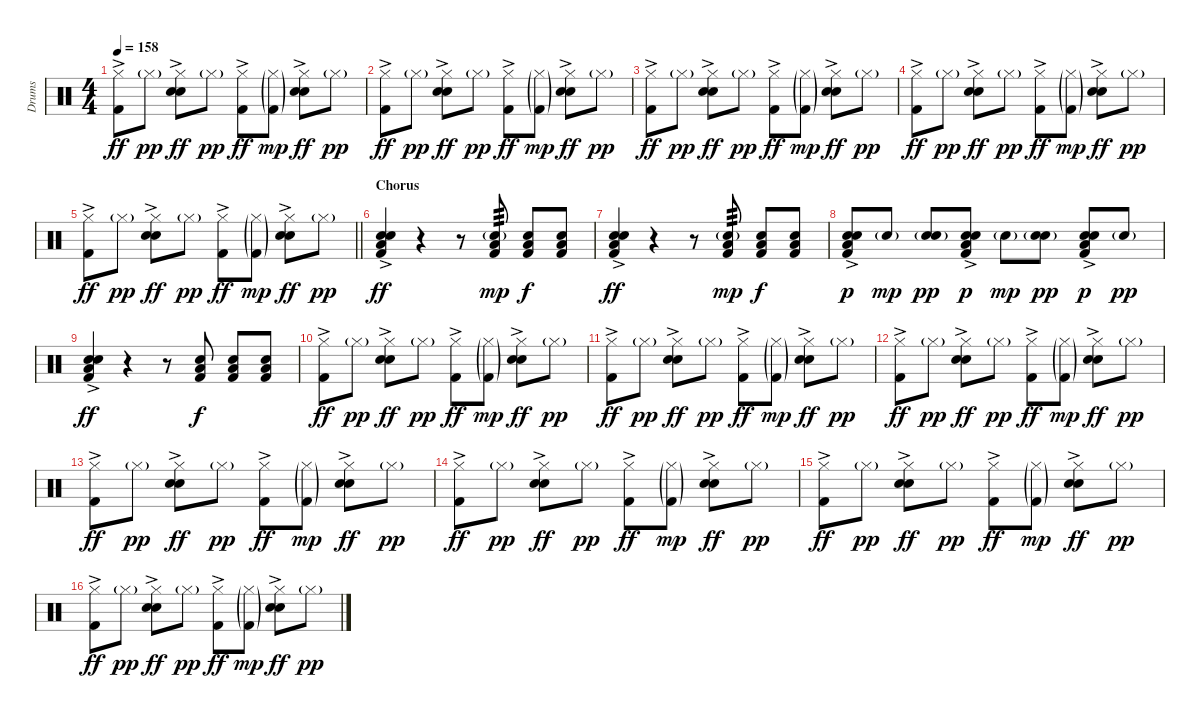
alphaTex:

\track ("Drums" "Drums") {instrument percussion}
\staff {score}
\articulation defaults
\ts (4 4)
\tempo 158
\clef neutral
\ks c
("Hi-Hat (closed)" "Kick (hit) 2"{ac}).8{dy ff} "Hi-Hat (closed)"{g}.8{dy pp} ("Hi-Hat (closed)" "Electric Snare (hit)"{ac} "Snare (hit) 2").8{dy ff} "Hi-Hat (closed)"{g}.8{dy pp} ("Hi-Hat (closed)" "Kick (hit) 2"{ac}).8{dy ff} ("Hi-Hat (closed)"{g} "Kick (hit) 2"{g}).8{dy mp} ("Hi-Hat (closed)" "Electric Snare (hit)"{ac} "Snare (hit) 2").8{dy ff} "Hi-Hat (closed)"{g}.8{dy pp} |
("Hi-Hat (closed)" "Kick (hit) 2"{ac}).8{dy ff} "Hi-Hat (closed)"{g}.8{dy pp} ("Hi-Hat (closed)" "Electric Snare (hit)"{ac} "Snare (hit) 2").8{dy ff} "Hi-Hat (closed)"{g}.8{dy pp} ("Hi-Hat (closed)" "Kick (hit) 2"{ac}).8{dy ff} ("Hi-Hat (closed)"{g} "Kick (hit) 2"{g}).8{dy mp} ("Hi-Hat (closed)" "Electric Snare (hit)"{ac} "Snare (hit) 2").8{dy ff} "Hi-Hat (closed)"{g}.8{dy pp} |
("Hi-Hat (closed)" "Kick (hit) 2"{ac}).8{dy ff} "Hi-Hat (closed)"{g}.8{dy pp} ("Hi-Hat (closed)" "Electric Snare (hit)"{ac} "Snare (hit) 2").8{dy ff} "Hi-Hat (closed)"{g}.8{dy pp} ("Hi-Hat (closed)" "Kick (hit) 2"{ac}).8{dy ff} ("Hi-Hat (closed)"{g} "Kick (hit) 2"{g}).8{dy mp} ("Hi-Hat (closed)" "Electric Snare (hit)"{ac} "Snare (hit) 2").8{dy ff} "Hi-Hat (closed)"{g}.8{dy pp} |
("Hi-Hat (closed)" "Kick (hit) 2"{ac}).8{dy ff} "Hi-Hat (closed)"{g}.8{dy pp} ("Hi-Hat (closed)" "Electric Snare (hit)"{ac} "Snare (hit) 2").8{dy ff} "Hi-Hat (closed)"{g}.8{dy pp} ("Hi-Hat (closed)" "Kick (hit) 2"{ac}).8{dy ff} ("Hi-Hat (closed)"{g} "Kick (hit) 2"{g}).8{dy mp} ("Hi-Hat (closed)" "Electric Snare (hit)"{ac} "Snare (hit) 2").8{dy ff} "Hi-Hat (closed)"{g}.8{dy pp} |
\barLineRight lightlight
("Hi-Hat (closed)" "Kick (hit) 2"{ac}).8{dy ff} "Hi-Hat (closed)"{g}.8{dy pp} ("Hi-Hat (closed)" "Electric Snare (hit)"{ac} "Snare (hit) 2").8{dy ff} "Hi-Hat (closed)"{g}.8{dy pp} ("Hi-Hat (closed)" "Kick (hit) 2"{ac}).8{dy ff} ("Hi-Hat (closed)"{g} "Kick (hit) 2"{g}).8{dy mp} ("Hi-Hat (closed)" "Electric Snare (hit)"{ac} "Snare (hit) 2").8{dy ff} "Hi-Hat (closed)"{g}.8{dy pp} |
\section ("" "Chorus")
("Low Floor Tom (hit)" "Electric Snare (hit)"{ac} "Snare (hit) 2" "Kick (hit) 2").4{dy ff} r.4 r.8 ("Low Floor Tom (hit)" "Snare (hit) 2"{g} "Kick (hit) 2").8{tp 3 dy mp} ("Low Floor Tom (hit)" "Snare (hit) 2" "Kick (hit) 2").8{dy f} ("Low Floor Tom (hit)" "Snare (hit) 2" "Kick (hit) 2").8 |
("Low Floor Tom (hit)" "Electric Snare (hit)"{ac} "Snare (hit) 2" "Kick (hit) 2").4{dy ff} r.4 r.8 ("Low Floor Tom (hit)" "Snare (hit) 2"{g} "Kick (hit) 2").8{tp 3 dy mp} ("Low Floor Tom (hit)" "Snare (hit) 2" "Kick (hit) 2").8{dy f} ("Low Floor Tom (hit)" "Snare (hit) 2" "Kick (hit) 2").8 |
("Low Floor Tom (hit)" "Electric Snare (hit)" "Snare (hit) 2" "Kick (hit) 2"{ac}).8{dy p} "Snare (hit) 2"{g}.8{dy mp} ("Electric Snare (hit)" "Snare (hit) 2"{g}).8{dy pp} ("Low Floor Tom (hit)" "Electric Snare (hit)" "Snare (hit) 2" "Kick (hit) 2"{ac}).8{dy p} "Snare (hit) 2"{g}.8{dy mp} ("Electric Snare (hit)" "Snare (hit) 2"{g}).8{dy pp} ("Low Floor Tom (hit)" "Electric Snare (hit)" "Snare (hit) 2" "Kick (hit) 2"{ac}).8{dy p} "Snare (hit) 2"{g}.8{dy pp} |
("Low Floor Tom (hit)" "Electric Snare (hit)"{ac} "Snare (hit) 2" "Kick (hit) 2").4{dy ff} r.4 r.8 ("Low Floor Tom (hit)" "Snare (hit) 2" "Kick (hit) 2").8{dy f} ("Low Floor Tom (hit)" "Snare (hit) 2" "Kick (hit) 2").8 ("Low Floor Tom (hit)" "Snare (hit) 2" "Kick (hit) 2").8 |
("Hi-Hat (closed)" "Kick (hit) 2"{ac}).8{dy ff} "Hi-Hat (closed)"{g}.8{dy pp} ("Hi-Hat (closed)" "Electric Snare (hit)"{ac} "Snare (hit) 2").8{dy ff} "Hi-Hat (closed)"{g}.8{dy pp} ("Hi-Hat (closed)" "Kick (hit) 2"{ac}).8{dy ff} ("Hi-Hat (closed)"{g} "Kick (hit) 2"{g}).8{dy mp} ("Hi-Hat (closed)" "Electric Snare (hit)"{ac} "Snare (hit) 2").8{dy ff} "Hi-Hat (closed)"{g}.8{dy pp} |
("Hi-Hat (closed)" "Kick (hit) 2"{ac}).8{dy ff} "Hi-Hat (closed)"{g}.8{dy pp} ("Hi-Hat (closed)" "Electric Snare (hit)"{ac} "Snare (hit) 2").8{dy ff} "Hi-Hat (closed)"{g}.8{dy pp} ("Hi-Hat (closed)" "Kick (hit) 2"{ac}).8{dy ff} ("Hi-Hat (closed)"{g} "Kick (hit) 2"{g}).8{dy mp} ("Hi-Hat (closed)" "Electric Snare (hit)"{ac} "Snare (hit) 2").8{dy ff} "Hi-Hat (closed)"{g}.8{dy pp} |
("Hi-Hat (closed)" "Kick (hit) 2"{ac}).8{dy ff} "Hi-Hat (closed)"{g}.8{dy pp} ("Hi-Hat (closed)" "Electric Snare (hit)"{ac} "Snare (hit) 2").8{dy ff} "Hi-Hat (closed)"{g}.8{dy pp} ("Hi-Hat (closed)" "Kick (hit) 2"{ac}).8{dy ff} ("Hi-Hat (closed)"{g} "Kick (hit) 2"{g}).8{dy mp} ("Hi-Hat (closed)" "Electric Snare (hit)"{ac} "Snare (hit) 2").8{dy ff} "Hi-Hat (closed)"{g}.8{dy pp} |
("Hi-Hat (closed)" "Kick (hit) 2"{ac}).8{dy ff} "Hi-Hat (closed)"{g}.8{dy pp} ("Hi-Hat (closed)" "Electric Snare (hit)"{ac} "Snare (hit) 2").8{dy ff} "Hi-Hat (closed)"{g}.8{dy pp} ("Hi-Hat (closed)" "Kick (hit) 2"{ac}).8{dy ff} ("Hi-Hat (closed)"{g} "Kick (hit) 2"{g}).8{dy mp} ("Hi-Hat (closed)" "Electric Snare (hit)"{ac} "Snare (hit) 2").8{dy ff} "Hi-Hat (closed)"{g}.8{dy pp} |
("Hi-Hat (closed)" "Kick (hit) 2"{ac}).8{dy ff} "Hi-Hat (closed)"{g}.8{dy pp} ("Hi-Hat (closed)" "Electric Snare (hit)"{ac} "Snare (hit) 2").8{dy ff} "Hi-Hat (closed)"{g}.8{dy pp} ("Hi-Hat (closed)" "Kick (hit) 2"{ac}).8{dy ff} ("Hi-Hat (closed)"{g} "Kick (hit) 2"{g}).8{dy mp} ("Hi-Hat (closed)" "Electric Snare (hit)"{ac} "Snare (hit) 2").8{dy ff} "Hi-Hat (closed)"{g}.8{dy pp} |
("Hi-Hat (closed)" "Kick (hit) 2"{ac}).8{dy ff} "Hi-Hat (closed)"{g}.8{dy pp} ("Hi-Hat (closed)" "Electric Snare (hit)"{ac} "Snare (hit) 2").8{dy ff} "Hi-Hat (closed)"{g}.8{dy pp} ("Hi-Hat (closed)" "Kick (hit) 2"{ac}).8{dy ff} ("Hi-Hat (closed)"{g} "Kick (hit) 2"{g}).8{dy mp} ("Hi-Hat (closed)" "Electric Snare (hit)"{ac} "Snare (hit) 2").8{dy ff} "Hi-Hat (closed)"{g}.8{dy pp} |
("Hi-Hat (closed)" "Kick (hit) 2"{ac}).8{dy ff} "Hi-Hat (closed)"{g}.8{dy pp} ("Hi-Hat (closed)" "Electric Snare (hit)"{ac} "Snare (hit) 2").8{dy ff} "Hi-Hat (closed)"{g}.8{dy pp} ("Hi-Hat (closed)" "Kick (hit) 2"{ac}).8{dy ff} ("Hi-Hat (closed)"{g} "Kick (hit) 2"{g}).8{dy mp} ("Hi-Hat (closed)" "Electric Snare (hit)"{ac} "Snare (hit) 2").8{dy ff} "Hi-Hat (closed)"{g}.8{dy pp}
